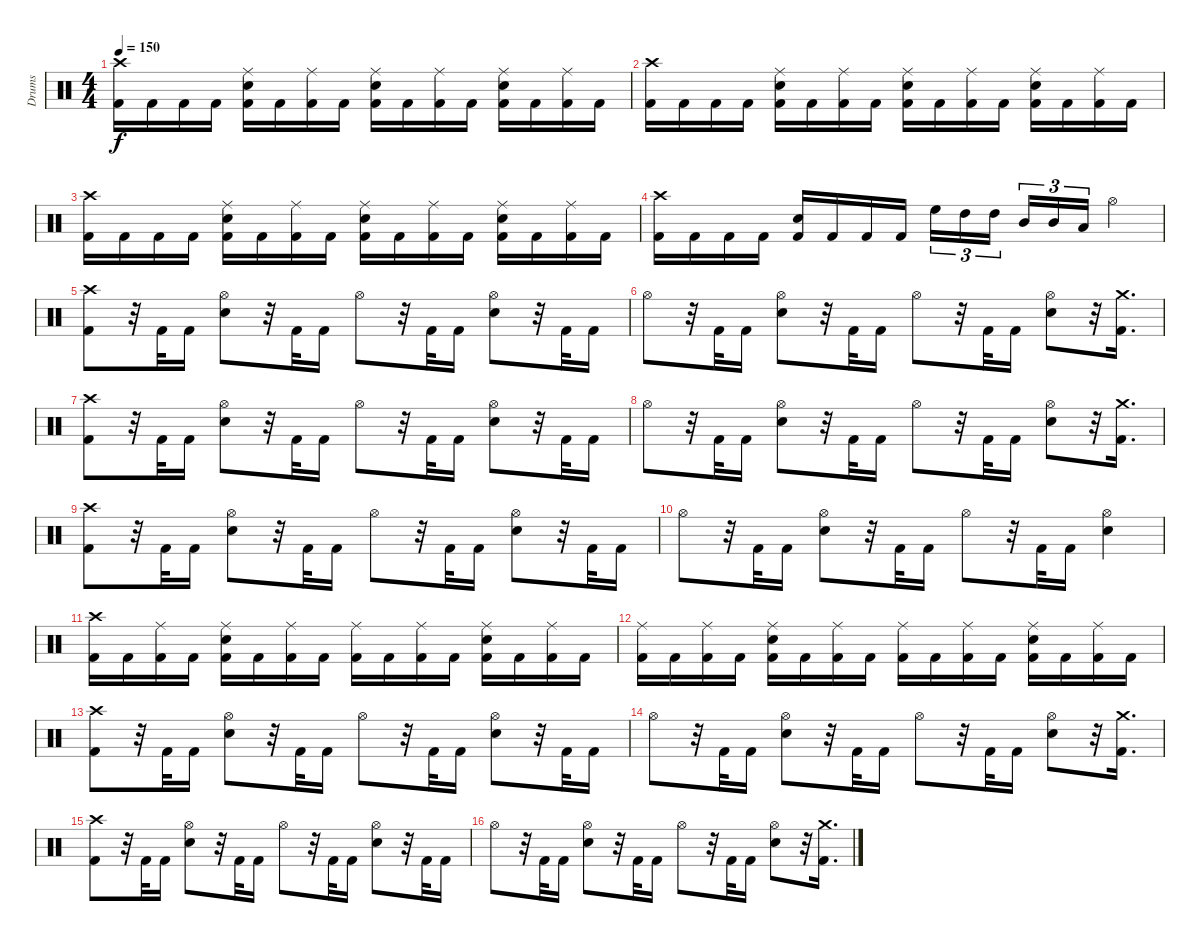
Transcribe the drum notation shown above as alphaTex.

\track ("Drums" "Drums") {instrument percussion}
\staff {score}
\articulation defaults
\ts (4 4)
\tempo 150
\clef neutral
\ks c
("Crash high (hit)" "Kick (hit) 2").16{dy f} "Kick (hit) 2".16 "Kick (hit) 2".16 "Kick (hit) 2".16 ("Ride (middle)" "Snare (hit) 2" "Kick (hit) 2").16 "Kick (hit) 2".16 ("Ride (middle)" "Kick (hit) 2").16 "Kick (hit) 2".16 ("Ride (middle)" "Snare (hit) 2" "Kick (hit) 2").16 "Kick (hit) 2".16 ("Ride (middle)" "Kick (hit) 2").16 "Kick (hit) 2".16 ("Ride (middle)" "Snare (hit) 2" "Kick (hit) 2").16 "Kick (hit) 2".16 ("Ride (middle)" "Kick (hit) 2").16 "Kick (hit) 2".16 |
("Crash high (hit)" "Kick (hit) 2").16 "Kick (hit) 2".16 "Kick (hit) 2".16 "Kick (hit) 2".16 ("Ride (middle)" "Snare (hit) 2" "Kick (hit) 2").16 "Kick (hit) 2".16 ("Ride (middle)" "Kick (hit) 2").16 "Kick (hit) 2".16 ("Ride (middle)" "Snare (hit) 2" "Kick (hit) 2").16 "Kick (hit) 2".16 ("Ride (middle)" "Kick (hit) 2").16 "Kick (hit) 2".16 ("Ride (middle)" "Snare (hit) 2" "Kick (hit) 2").16 "Kick (hit) 2".16 ("Ride (middle)" "Kick (hit) 2").16 "Kick (hit) 2".16 |
("Crash high (hit)" "Kick (hit) 2").16 "Kick (hit) 2".16 "Kick (hit) 2".16 "Kick (hit) 2".16 ("Ride (middle)" "Snare (hit) 2" "Kick (hit) 2").16 "Kick (hit) 2".16 ("Ride (middle)" "Kick (hit) 2").16 "Kick (hit) 2".16 ("Ride (middle)" "Snare (hit) 2" "Kick (hit) 2").16 "Kick (hit) 2".16 ("Ride (middle)" "Kick (hit) 2").16 "Kick (hit) 2".16 ("Ride (middle)" "Snare (hit) 2" "Kick (hit) 2").16 "Kick (hit) 2".16 ("Ride (middle)" "Kick (hit) 2").16 "Kick (hit) 2".16 |
("Crash high (hit)" "Kick (hit) 2").16 "Kick (hit) 2".16 "Kick (hit) 2".16 "Kick (hit) 2".16 ("Snare (hit) 2" "Kick (hit) 2").16 "Kick (hit) 2".16 "Kick (hit) 2".16 "Kick (hit) 2".16 "High Floor Tom (hit)".16{tu (3 2)} "High Tom (hit)".16{tu (3 2)} "High Tom (hit)".16{tu (3 2) beam splitsecondary} "Mid Tom (hit)".16{tu (3 2)} "Mid Tom (hit)".16{tu (3 2)} "Low Tom (hit)".16{tu (3 2)} "Hi-Hat (open)".4 |
("Crash high (hit)" "Kick (hit) 2").8 r.32 "Kick (hit) 2".32 "Kick (hit) 2".16 ("Hi-Hat (open)" "Snare (hit) 2").8 r.32 "Kick (hit) 2".32 "Kick (hit) 2".16 "Hi-Hat (open)".8 r.32 "Kick (hit) 2".32 "Kick (hit) 2".16 ("Hi-Hat (open)" "Snare (hit) 2").8 r.32 "Kick (hit) 2".32 "Kick (hit) 2".16 |
"Hi-Hat (open)".8 r.32 "Kick (hit) 2".32 "Kick (hit) 2".16 ("Hi-Hat (open)" "Snare (hit) 2").8 r.32 "Kick (hit) 2".32 "Kick (hit) 2".16 "Hi-Hat (open)".8 r.32 "Kick (hit) 2".32 "Kick (hit) 2".16 ("Hi-Hat (open)" "Snare (hit) 2").8 r.32 ("Crash medium (hit)" "Kick (hit) 2").16{d} |
("Crash high (hit)" "Kick (hit) 2").8 r.32 "Kick (hit) 2".32 "Kick (hit) 2".16 ("Hi-Hat (open)" "Snare (hit) 2").8 r.32 "Kick (hit) 2".32 "Kick (hit) 2".16 "Hi-Hat (open)".8 r.32 "Kick (hit) 2".32 "Kick (hit) 2".16 ("Hi-Hat (open)" "Snare (hit) 2").8 r.32 "Kick (hit) 2".32 "Kick (hit) 2".16 |
"Hi-Hat (open)".8 r.32 "Kick (hit) 2".32 "Kick (hit) 2".16 ("Hi-Hat (open)" "Snare (hit) 2").8 r.32 "Kick (hit) 2".32 "Kick (hit) 2".16 "Hi-Hat (open)".8 r.32 "Kick (hit) 2".32 "Kick (hit) 2".16 ("Hi-Hat (open)" "Snare (hit) 2").8 r.32 ("Crash medium (hit)" "Kick (hit) 2").16{d} |
("Crash high (hit)" "Kick (hit) 2").8 r.32 "Kick (hit) 2".32 "Kick (hit) 2".16 ("Hi-Hat (open)" "Snare (hit) 2").8 r.32 "Kick (hit) 2".32 "Kick (hit) 2".16 "Hi-Hat (open)".8 r.32 "Kick (hit) 2".32 "Kick (hit) 2".16 ("Hi-Hat (open)" "Snare (hit) 2").8 r.32 "Kick (hit) 2".32 "Kick (hit) 2".16 |
"Hi-Hat (open)".8 r.32 "Kick (hit) 2".32 "Kick (hit) 2".16 ("Hi-Hat (open)" "Snare (hit) 2").8 r.32 "Kick (hit) 2".32 "Kick (hit) 2".16 "Hi-Hat (open)".8 r.32 "Kick (hit) 2".32 "Kick (hit) 2".16 ("Hi-Hat (open)" "Snare (hit) 2").4 |
("Crash high (hit)" "Kick (hit) 2").16 "Kick (hit) 2".16 ("Ride (middle)" "Kick (hit) 2").16 "Kick (hit) 2".16 ("Ride (middle)" "Snare (hit) 2" "Kick (hit) 2").16 "Kick (hit) 2".16 ("Ride (middle)" "Kick (hit) 2").16 "Kick (hit) 2".16 ("Ride (middle)" "Kick (hit) 2").16 "Kick (hit) 2".16 ("Ride (middle)" "Kick (hit) 2").16 "Kick (hit) 2".16 ("Ride (middle)" "Snare (hit) 2" "Kick (hit) 2").16 "Kick (hit) 2".16 ("Ride (middle)" "Kick (hit) 2").16 "Kick (hit) 2".16 |
("Ride (middle)" "Kick (hit) 2").16 "Kick (hit) 2".16 ("Ride (middle)" "Kick (hit) 2").16 "Kick (hit) 2".16 ("Ride (middle)" "Snare (hit) 2" "Kick (hit) 2").16 "Kick (hit) 2".16 ("Ride (middle)" "Kick (hit) 2").16 "Kick (hit) 2".16 ("Ride (middle)" "Kick (hit) 2").16 "Kick (hit) 2".16 ("Ride (middle)" "Kick (hit) 2").16 "Kick (hit) 2".16 ("Ride (middle)" "Snare (hit) 2" "Kick (hit) 2").16 "Kick (hit) 2".16 ("Ride (middle)" "Kick (hit) 2").16 "Kick (hit) 2".16 |
("Crash high (hit)" "Kick (hit) 2").8 r.32 "Kick (hit) 2".32 "Kick (hit) 2".16 ("Hi-Hat (open)" "Snare (hit) 2").8 r.32 "Kick (hit) 2".32 "Kick (hit) 2".16 "Hi-Hat (open)".8 r.32 "Kick (hit) 2".32 "Kick (hit) 2".16 ("Hi-Hat (open)" "Snare (hit) 2").8 r.32 "Kick (hit) 2".32 "Kick (hit) 2".16 |
"Hi-Hat (open)".8 r.32 "Kick (hit) 2".32 "Kick (hit) 2".16 ("Hi-Hat (open)" "Snare (hit) 2").8 r.32 "Kick (hit) 2".32 "Kick (hit) 2".16 "Hi-Hat (open)".8 r.32 "Kick (hit) 2".32 "Kick (hit) 2".16 ("Hi-Hat (open)" "Snare (hit) 2").8 r.32 ("Crash medium (hit)" "Kick (hit) 2").16{d} |
("Crash high (hit)" "Kick (hit) 2").8 r.32 "Kick (hit) 2".32 "Kick (hit) 2".16 ("Hi-Hat (open)" "Snare (hit) 2").8 r.32 "Kick (hit) 2".32 "Kick (hit) 2".16 "Hi-Hat (open)".8 r.32 "Kick (hit) 2".32 "Kick (hit) 2".16 ("Hi-Hat (open)" "Snare (hit) 2").8 r.32 "Kick (hit) 2".32 "Kick (hit) 2".16 |
"Hi-Hat (open)".8 r.32 "Kick (hit) 2".32 "Kick (hit) 2".16 ("Hi-Hat (open)" "Snare (hit) 2").8 r.32 "Kick (hit) 2".32 "Kick (hit) 2".16 "Hi-Hat (open)".8 r.32 "Kick (hit) 2".32 "Kick (hit) 2".16 ("Hi-Hat (open)" "Snare (hit) 2").8 r.32 ("Crash medium (hit)" "Kick (hit) 2").16{d}
